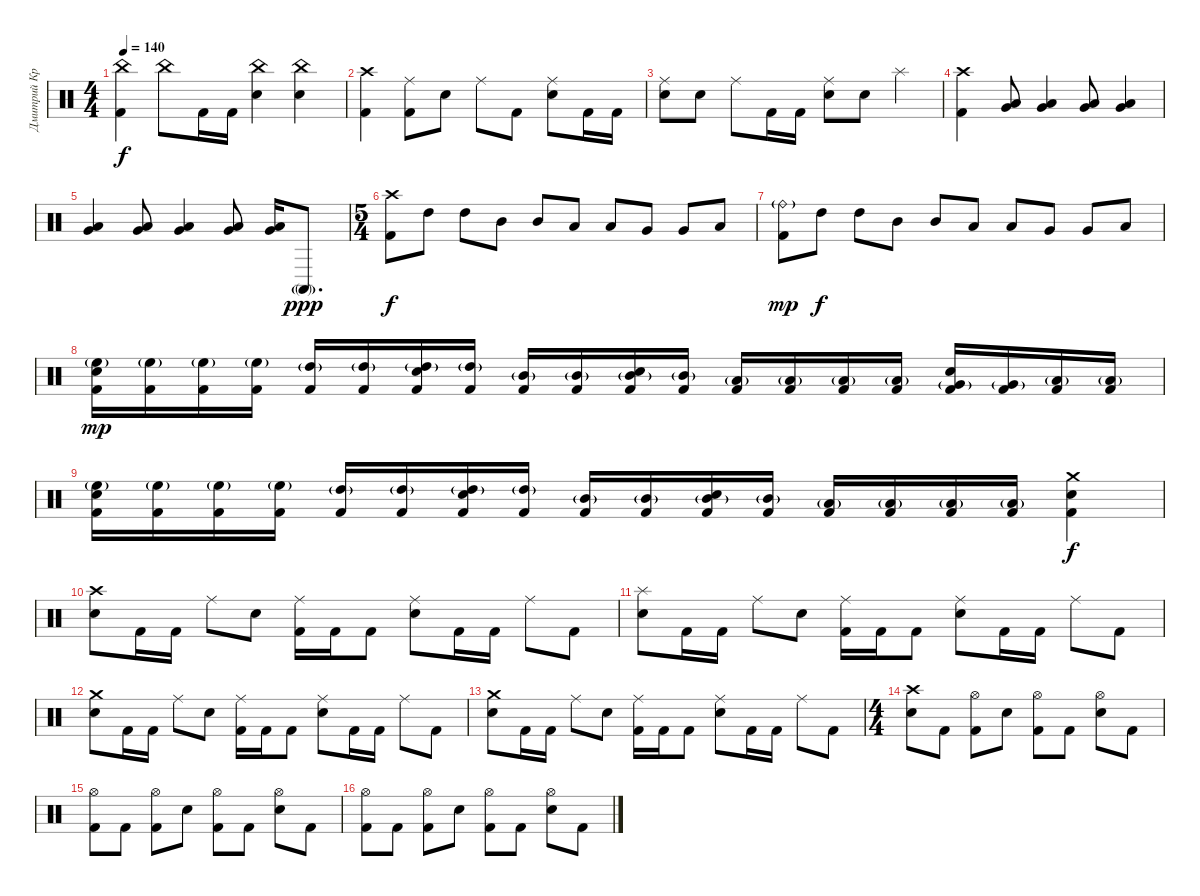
\track ("Дмитрий Кривенков" "Дмитрий Кр") {instrument percussion}
\staff {score}
\articulation defaults
\ts (4 4)
\tempo 140
\clef neutral
\ks c
("China (hit)" "Kick (hit) 2").4{dy f} "China (hit)".8 "Kick (hit) 2".16 "Kick (hit) 2".16 ("China (hit)" "Electric Snare (hit)").4 ("China (hit)" "Electric Snare (hit)").4 |
("Crash high (hit)" "Kick (hit) 2").4 ("Ride (middle)" "Kick (hit) 2").8 "Electric Snare (hit)".8 "Ride (middle)".8 "Kick (hit) 2".8 ("Ride (middle)" "Electric Snare (hit)").8 "Kick (hit) 2".16 "Kick (hit) 2".16 |
("Ride (middle)" "Electric Snare (hit)").8 "Electric Snare (hit)".8 "Ride (middle)".8 "Kick (hit) 2".16 "Kick (hit) 2".16 ("Ride (middle)" "Electric Snare (hit)").8 "Electric Snare (hit)".8 "Splash (hit)".4 |
("Crash high (hit)" "Kick (hit) 2").4 ("Very Low Tom (hit)" "Low Floor Tom (hit)").8 ("Very Low Tom (hit)" "Low Floor Tom (hit)").4 ("Very Low Tom (hit)" "Low Floor Tom (hit)").8 ("Very Low Tom (hit)" "Low Floor Tom (hit)").4 |
("Very Low Tom (hit)" "Low Floor Tom (hit)").4 ("Very Low Tom (hit)" "Low Floor Tom (hit)").8 ("Very Low Tom (hit)" "Low Floor Tom (hit)").4 ("Very Low Tom (hit)" "Low Floor Tom (hit)").8 ("Very Low Tom (hit)" "Low Floor Tom (hit)").16 "Conga high (mute)"{g}.8{d dy ppp} |
\ts (5 4)
("Crash high (hit)" "Kick (hit) 2").8{dy f} "High Tom (hit)".8 "High Tom (hit)".8 "Mid Tom (hit)".8 "Mid Tom (hit)".8 "Low Tom (hit)".8 "Low Tom (hit)".8 "Very Low Tom (hit)".8 "Very Low Tom (hit)".8 "Low Floor Tom (hit)".8 |
("Ride (bell)"{g} "Kick (hit) 2").8{dy mp} "High Tom (hit)".8{dy f} "High Tom (hit)".8 "Mid Tom (hit)".8 "Mid Tom (hit)".8 "Low Tom (hit)".8 "Low Tom (hit)".8 "Very Low Tom (hit)".8 "Very Low Tom (hit)".8 "Low Floor Tom (hit)".8 |
("High Floor Tom (hit)"{g} "Electric Snare (hit)" "Kick (hit) 2").16{dy mp} ("High Floor Tom (hit)"{g} "Kick (hit) 2").16 ("High Floor Tom (hit)"{g} "Kick (hit) 2").16 ("High Floor Tom (hit)"{g} "Kick (hit) 2").16 ("High Tom (hit)"{g} "Kick (hit) 2").16 ("High Tom (hit)"{g} "Kick (hit) 2").16 ("High Tom (hit)"{g} "Electric Snare (hit)" "Kick (hit) 2").16 ("High Tom (hit)"{g} "Kick (hit) 2").16 ("Mid Tom (hit)"{g} "Kick (hit) 2").16 ("Mid Tom (hit)"{g} "Kick (hit) 2").16 ("Mid Tom (hit)"{g} "Electric Snare (hit)" "Kick (hit) 2").16 ("Mid Tom (hit)"{g} "Kick (hit) 2").16 ("Low Tom (hit)"{g} "Kick (hit) 2").16 ("Low Tom (hit)"{g} "Kick (hit) 2").16 ("Low Tom (hit)"{g} "Kick (hit) 2").16 ("Low Tom (hit)"{g} "Kick (hit) 2").16 ("Very Low Tom (hit)"{g} "Electric Snare (hit)" "Kick (hit) 2").16 ("Very Low Tom (hit)"{g} "Kick (hit) 2").16 ("Low Floor Tom (hit)"{g} "Kick (hit) 2").16 ("Low Floor Tom (hit)"{g} "Kick (hit) 2").16 |
("High Floor Tom (hit)"{g} "Electric Snare (hit)" "Kick (hit) 2").16 ("High Floor Tom (hit)"{g} "Kick (hit) 2").16 ("High Floor Tom (hit)"{g} "Kick (hit) 2").16 ("High Floor Tom (hit)"{g} "Kick (hit) 2").16 ("High Tom (hit)"{g} "Kick (hit) 2").16 ("High Tom (hit)"{g} "Kick (hit) 2").16 ("High Tom (hit)"{g} "Electric Snare (hit)" "Kick (hit) 2").16 ("High Tom (hit)"{g} "Kick (hit) 2").16 ("Mid Tom (hit)"{g} "Kick (hit) 2").16 ("Mid Tom (hit)"{g} "Kick (hit) 2").16 ("Mid Tom (hit)"{g} "Electric Snare (hit)" "Kick (hit) 2").16 ("Mid Tom (hit)"{g} "Kick (hit) 2").16 ("Low Tom (hit)"{g} "Kick (hit) 2").16 ("Low Tom (hit)"{g} "Kick (hit) 2").16 ("Low Tom (hit)"{g} "Kick (hit) 2").16 ("Low Tom (hit)"{g} "Kick (hit) 2").16 ("Crash medium (hit)" "Electric Snare (hit)" "Kick (hit) 2").4{dy f} |
("Crash high (hit)" "Electric Snare (hit)").8 "Kick (hit) 2".16 "Kick (hit) 2".16 "Ride (middle)".8 "Electric Snare (hit)".8 ("Ride (middle)" "Kick (hit) 2").16 "Kick (hit) 2".16 "Kick (hit) 2".8 ("Ride (middle)" "Electric Snare (hit)").8 "Kick (hit) 2".16 "Kick (hit) 2".16 "Ride (middle)".8 "Kick (hit) 2".8 |
("Splash (hit)" "Electric Snare (hit)").8 "Kick (hit) 2".16 "Kick (hit) 2".16 "Ride (middle)".8 "Electric Snare (hit)".8 ("Ride (middle)" "Kick (hit) 2").16 "Kick (hit) 2".16 "Kick (hit) 2".8 ("Ride (middle)" "Electric Snare (hit)").8 "Kick (hit) 2".16 "Kick (hit) 2".16 "Ride (middle)".8 "Kick (hit) 2".8 |
("Crash medium (hit)" "Electric Snare (hit)").8 "Kick (hit) 2".16 "Kick (hit) 2".16 "Ride (middle)".8 "Electric Snare (hit)".8 ("Ride (middle)" "Kick (hit) 2").16 "Kick (hit) 2".16 "Kick (hit) 2".8 ("Ride (middle)" "Electric Snare (hit)").8 "Kick (hit) 2".16 "Kick (hit) 2".16 "Ride (middle)".8 "Kick (hit) 2".8 |
("Crash medium (hit)" "Electric Snare (hit)").8 "Kick (hit) 2".16 "Kick (hit) 2".16 "Ride (middle)".8 "Electric Snare (hit)".8 ("Ride (middle)" "Kick (hit) 2").16 "Kick (hit) 2".16 "Kick (hit) 2".8 ("Ride (middle)" "Electric Snare (hit)").8 "Kick (hit) 2".16 "Kick (hit) 2".16 "Ride (middle)".8 "Kick (hit) 2".8 |
\ts (4 4)
("Crash high (hit)" "Electric Snare (hit)").8 "Kick (hit) 2".8 ("Hi-Hat (open)" "Kick (hit) 2").8 "Electric Snare (hit)".8 ("Hi-Hat (open)" "Kick (hit) 2").8 "Kick (hit) 2".8 ("Hi-Hat (open)" "Electric Snare (hit)").8 "Kick (hit) 2".8 |
("Hi-Hat (open)" "Kick (hit) 2").8 "Kick (hit) 2".8 ("Hi-Hat (open)" "Kick (hit) 2").8 "Electric Snare (hit)".8 ("Hi-Hat (open)" "Kick (hit) 2").8 "Kick (hit) 2".8 ("Hi-Hat (open)" "Electric Snare (hit)").8 "Kick (hit) 2".8 |
("Hi-Hat (open)" "Kick (hit) 2").8 "Kick (hit) 2".8 ("Hi-Hat (open)" "Kick (hit) 2").8 "Electric Snare (hit)".8 ("Hi-Hat (open)" "Kick (hit) 2").8 "Kick (hit) 2".8 ("Hi-Hat (open)" "Electric Snare (hit)").8 "Kick (hit) 2".8
